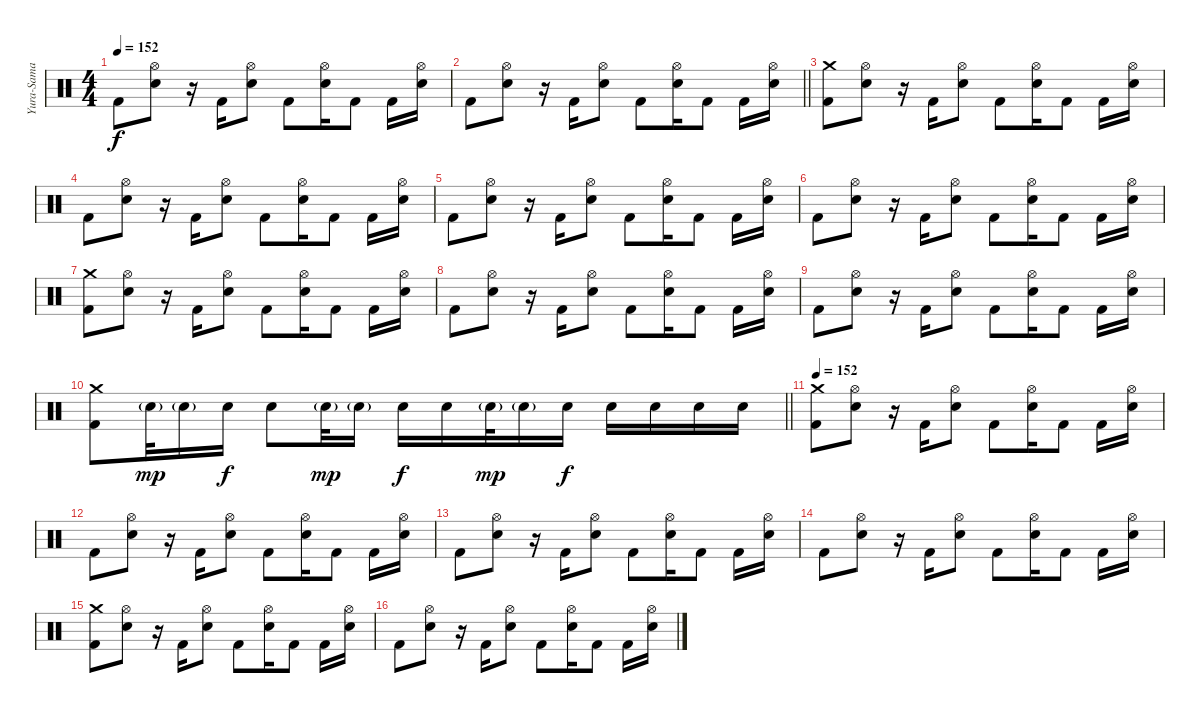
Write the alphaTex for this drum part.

\track ("Yura-Sama" "Yura-Sama") {instrument percussion}
\staff {score}
\articulation defaults
\ts (4 4)
\tempo 152
\clef neutral
\ks c "Kick (hit) 2".8{dy f}
("Electric Snare (hit)" "Hi-Hat (open)").8 r.16 "Kick (hit) 2".16 ("Electric Snare (hit)" "Hi-Hat (open)").8 "Kick (hit) 2".8 ("Electric Snare (hit)" "Hi-Hat (open)").16 "Kick (hit) 2".8 "Kick (hit) 2".16 ("Electric Snare (hit)" "Hi-Hat (open)").16 |
\barLineRight lightlight "Kick (hit) 2".8
("Electric Snare (hit)" "Hi-Hat (open)").8 r.16 "Kick (hit) 2".16 ("Electric Snare (hit)" "Hi-Hat (open)").8 "Kick (hit) 2".8 ("Electric Snare (hit)" "Hi-Hat (open)").16 "Kick (hit) 2".8 "Kick (hit) 2".16 ("Electric Snare (hit)" "Hi-Hat (open)").16 |
("Kick (hit) 2" "Crash medium (hit)").8 ("Electric Snare (hit)" "Hi-Hat (open)").8 r.16 "Kick (hit) 2".16 ("Electric Snare (hit)" "Hi-Hat (open)").8 "Kick (hit) 2".8 ("Electric Snare (hit)" "Hi-Hat (open)").16 "Kick (hit) 2".8 "Kick (hit) 2".16 ("Electric Snare (hit)" "Hi-Hat (open)").16 |
"Kick (hit) 2".8 ("Electric Snare (hit)" "Hi-Hat (open)").8 r.16 "Kick (hit) 2".16 ("Electric Snare (hit)" "Hi-Hat (open)").8 "Kick (hit) 2".8 ("Electric Snare (hit)" "Hi-Hat (open)").16 "Kick (hit) 2".8 "Kick (hit) 2".16 ("Electric Snare (hit)" "Hi-Hat (open)").16 |
"Kick (hit) 2".8 ("Electric Snare (hit)" "Hi-Hat (open)").8 r.16 "Kick (hit) 2".16 ("Electric Snare (hit)" "Hi-Hat (open)").8 "Kick (hit) 2".8 ("Electric Snare (hit)" "Hi-Hat (open)").16 "Kick (hit) 2".8 "Kick (hit) 2".16 ("Electric Snare (hit)" "Hi-Hat (open)").16 |
"Kick (hit) 2".8 ("Electric Snare (hit)" "Hi-Hat (open)").8 r.16 "Kick (hit) 2".16 ("Electric Snare (hit)" "Hi-Hat (open)").8 "Kick (hit) 2".8 ("Electric Snare (hit)" "Hi-Hat (open)").16 "Kick (hit) 2".8 "Kick (hit) 2".16 ("Electric Snare (hit)" "Hi-Hat (open)").16 |
("Kick (hit) 2" "Crash medium (hit)").8 ("Electric Snare (hit)" "Hi-Hat (open)").8 r.16 "Kick (hit) 2".16 ("Electric Snare (hit)" "Hi-Hat (open)").8 "Kick (hit) 2".8 ("Electric Snare (hit)" "Hi-Hat (open)").16 "Kick (hit) 2".8 "Kick (hit) 2".16 ("Electric Snare (hit)" "Hi-Hat (open)").16 |
"Kick (hit) 2".8 ("Electric Snare (hit)" "Hi-Hat (open)").8 r.16 "Kick (hit) 2".16 ("Electric Snare (hit)" "Hi-Hat (open)").8 "Kick (hit) 2".8 ("Electric Snare (hit)" "Hi-Hat (open)").16 "Kick (hit) 2".8 "Kick (hit) 2".16 ("Electric Snare (hit)" "Hi-Hat (open)").16 |
"Kick (hit) 2".8 ("Electric Snare (hit)" "Hi-Hat (open)").8 r.16 "Kick (hit) 2".16 ("Electric Snare (hit)" "Hi-Hat (open)").8 "Kick (hit) 2".8 ("Electric Snare (hit)" "Hi-Hat (open)").16 "Kick (hit) 2".8 "Kick (hit) 2".16 ("Electric Snare (hit)" "Hi-Hat (open)").16 |
\barLineRight lightlight
("Kick (hit) 2" "Crash medium (hit)").8 "Electric Snare (hit)"{g}.32{dy mp} "Electric Snare (hit)"{g}.16 "Electric Snare (hit)".16{dy f} "Electric Snare (hit)".8 "Electric Snare (hit)"{g}.32{dy mp} "Electric Snare (hit)"{g}.16 "Electric Snare (hit)".16{dy f} "Electric Snare (hit)".16 "Electric Snare (hit)"{g}.32{dy mp} "Electric Snare (hit)"{g}.16 "Electric Snare (hit)".16{dy f} "Electric Snare (hit)".16 "Electric Snare (hit)".16 "Electric Snare (hit)".16 "Electric Snare (hit)".16 |
\tempo 152
("Kick (hit) 2" "Crash medium (hit)").8 ("Electric Snare (hit)" "Hi-Hat (open)").8 r.16 "Kick (hit) 2".16 ("Electric Snare (hit)" "Hi-Hat (open)").8 "Kick (hit) 2".8 ("Electric Snare (hit)" "Hi-Hat (open)").16 "Kick (hit) 2".8 "Kick (hit) 2".16 ("Electric Snare (hit)" "Hi-Hat (open)").16 |
"Kick (hit) 2".8 ("Electric Snare (hit)" "Hi-Hat (open)").8 r.16 "Kick (hit) 2".16 ("Electric Snare (hit)" "Hi-Hat (open)").8 "Kick (hit) 2".8 ("Electric Snare (hit)" "Hi-Hat (open)").16 "Kick (hit) 2".8 "Kick (hit) 2".16 ("Electric Snare (hit)" "Hi-Hat (open)").16 |
"Kick (hit) 2".8 ("Electric Snare (hit)" "Hi-Hat (open)").8 r.16 "Kick (hit) 2".16 ("Electric Snare (hit)" "Hi-Hat (open)").8 "Kick (hit) 2".8 ("Electric Snare (hit)" "Hi-Hat (open)").16 "Kick (hit) 2".8 "Kick (hit) 2".16 ("Electric Snare (hit)" "Hi-Hat (open)").16 |
"Kick (hit) 2".8 ("Electric Snare (hit)" "Hi-Hat (open)").8 r.16 "Kick (hit) 2".16 ("Electric Snare (hit)" "Hi-Hat (open)").8 "Kick (hit) 2".8 ("Electric Snare (hit)" "Hi-Hat (open)").16 "Kick (hit) 2".8 "Kick (hit) 2".16 ("Electric Snare (hit)" "Hi-Hat (open)").16 |
("Kick (hit) 2" "Crash medium (hit)").8 ("Electric Snare (hit)" "Hi-Hat (open)").8 r.16 "Kick (hit) 2".16 ("Electric Snare (hit)" "Hi-Hat (open)").8 "Kick (hit) 2".8 ("Electric Snare (hit)" "Hi-Hat (open)").16 "Kick (hit) 2".8 "Kick (hit) 2".16 ("Electric Snare (hit)" "Hi-Hat (open)").16 |
"Kick (hit) 2".8 ("Electric Snare (hit)" "Hi-Hat (open)").8 r.16 "Kick (hit) 2".16 ("Electric Snare (hit)" "Hi-Hat (open)").8 "Kick (hit) 2".8 ("Electric Snare (hit)" "Hi-Hat (open)").16 "Kick (hit) 2".8 "Kick (hit) 2".16 ("Electric Snare (hit)" "Hi-Hat (open)").16
